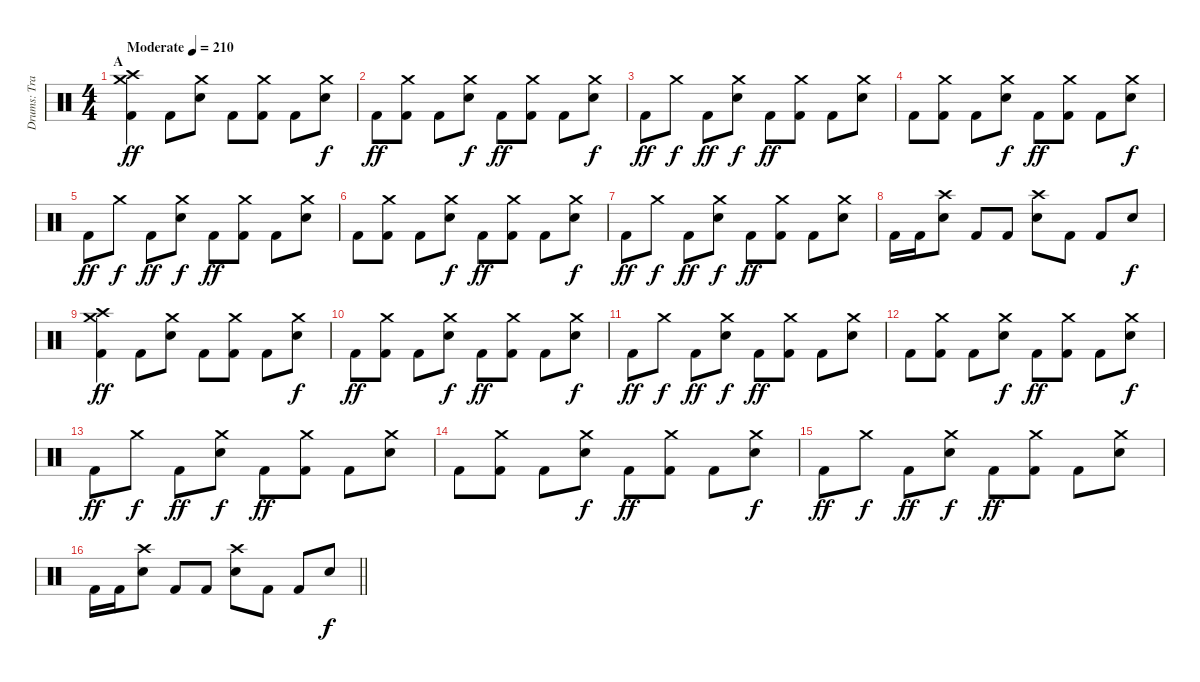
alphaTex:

\track ("Drums: Trav Clarke" "Drums: Tra") {instrument percussion}
\staff {score}
\articulation defaults
\ts (4 4)
\section ("" "A")
\tempo (210 "Moderate")
\clef neutral
\ks c
("Kick (hit) 2" "Crash high (hit)" "Crash medium (hit)").4{dy ff} "Kick (hit) 2".8 ("Snare (hit) 2" "Crash medium (hit)").8 "Kick (hit) 2".8 ("Kick (hit) 2" "Crash medium (hit)").8 "Kick (hit) 2".8 ("Snare (hit) 2" "Crash medium (hit)").8{dy f} |
"Kick (hit) 2".8{dy ff} ("Kick (hit) 2" "Crash medium (hit)").8 "Kick (hit) 2".8 ("Snare (hit) 2" "Crash medium (hit)").8{dy f} "Kick (hit) 2".8{dy ff} ("Kick (hit) 2" "Crash medium (hit)").8 "Kick (hit) 2".8 ("Snare (hit) 2" "Crash medium (hit)").8{dy f} |
"Kick (hit) 2".8{dy ff} "Crash medium (hit)".8{dy f} "Kick (hit) 2".8{dy ff} ("Snare (hit) 2" "Crash medium (hit)").8{dy f} "Kick (hit) 2".8{dy ff} ("Kick (hit) 2" "Crash medium (hit)").8 "Kick (hit) 2".8 ("Snare (hit) 2" "Crash medium (hit)").8 |
"Kick (hit) 2".8 ("Kick (hit) 2" "Crash medium (hit)").8 "Kick (hit) 2".8 ("Snare (hit) 2" "Crash medium (hit)").8{dy f} "Kick (hit) 2".8{dy ff} ("Kick (hit) 2" "Crash medium (hit)").8 "Kick (hit) 2".8 ("Snare (hit) 2" "Crash medium (hit)").8{dy f} |
"Kick (hit) 2".8{dy ff} "Crash medium (hit)".8{dy f} "Kick (hit) 2".8{dy ff} ("Snare (hit) 2" "Crash medium (hit)").8{dy f} "Kick (hit) 2".8{dy ff} ("Kick (hit) 2" "Crash medium (hit)").8 "Kick (hit) 2".8 ("Snare (hit) 2" "Crash medium (hit)").8 |
"Kick (hit) 2".8 ("Kick (hit) 2" "Crash medium (hit)").8 "Kick (hit) 2".8 ("Snare (hit) 2" "Crash medium (hit)").8{dy f} "Kick (hit) 2".8{dy ff} ("Kick (hit) 2" "Crash medium (hit)").8 "Kick (hit) 2".8 ("Snare (hit) 2" "Crash medium (hit)").8{dy f} |
"Kick (hit) 2".8{dy ff} "Crash medium (hit)".8{dy f} "Kick (hit) 2".8{dy ff} ("Snare (hit) 2" "Crash medium (hit)").8{dy f} "Kick (hit) 2".8{dy ff} ("Kick (hit) 2" "Crash medium (hit)").8 "Kick (hit) 2".8 ("Snare (hit) 2" "Crash medium (hit)").8 |
"Kick (hit) 2".16 "Kick (hit) 2".16 ("Snare (hit) 2" "Crash high (hit)").8 "Kick (hit) 2".8 "Kick (hit) 2".8 ("Snare (hit) 2" "Crash high (hit)").8 "Kick (hit) 2".8 "Kick (hit) 2".8 "Snare (hit) 2".8{dy f} |
("Kick (hit) 2" "Crash high (hit)" "Crash medium (hit)").4{dy ff} "Kick (hit) 2".8 ("Snare (hit) 2" "Crash medium (hit)").8 "Kick (hit) 2".8 ("Kick (hit) 2" "Crash medium (hit)").8 "Kick (hit) 2".8 ("Snare (hit) 2" "Crash medium (hit)").8{dy f} |
"Kick (hit) 2".8{dy ff} ("Kick (hit) 2" "Crash medium (hit)").8 "Kick (hit) 2".8 ("Snare (hit) 2" "Crash medium (hit)").8{dy f} "Kick (hit) 2".8{dy ff} ("Kick (hit) 2" "Crash medium (hit)").8 "Kick (hit) 2".8 ("Snare (hit) 2" "Crash medium (hit)").8{dy f} |
"Kick (hit) 2".8{dy ff} "Crash medium (hit)".8{dy f} "Kick (hit) 2".8{dy ff} ("Snare (hit) 2" "Crash medium (hit)").8{dy f} "Kick (hit) 2".8{dy ff} ("Kick (hit) 2" "Crash medium (hit)").8 "Kick (hit) 2".8 ("Snare (hit) 2" "Crash medium (hit)").8 |
"Kick (hit) 2".8 ("Kick (hit) 2" "Crash medium (hit)").8 "Kick (hit) 2".8 ("Snare (hit) 2" "Crash medium (hit)").8{dy f} "Kick (hit) 2".8{dy ff} ("Kick (hit) 2" "Crash medium (hit)").8 "Kick (hit) 2".8 ("Snare (hit) 2" "Crash medium (hit)").8{dy f} |
"Kick (hit) 2".8{dy ff} "Crash medium (hit)".8{dy f} "Kick (hit) 2".8{dy ff} ("Snare (hit) 2" "Crash medium (hit)").8{dy f} "Kick (hit) 2".8{dy ff} ("Kick (hit) 2" "Crash medium (hit)").8 "Kick (hit) 2".8 ("Snare (hit) 2" "Crash medium (hit)").8 |
"Kick (hit) 2".8 ("Kick (hit) 2" "Crash medium (hit)").8 "Kick (hit) 2".8 ("Snare (hit) 2" "Crash medium (hit)").8{dy f} "Kick (hit) 2".8{dy ff} ("Kick (hit) 2" "Crash medium (hit)").8 "Kick (hit) 2".8 ("Snare (hit) 2" "Crash medium (hit)").8{dy f} |
"Kick (hit) 2".8{dy ff} "Crash medium (hit)".8{dy f} "Kick (hit) 2".8{dy ff} ("Snare (hit) 2" "Crash medium (hit)").8{dy f} "Kick (hit) 2".8{dy ff} ("Kick (hit) 2" "Crash medium (hit)").8 "Kick (hit) 2".8 ("Snare (hit) 2" "Crash medium (hit)").8 |
\barLineRight lightlight "Kick (hit) 2".16 "Kick (hit) 2".16
("Snare (hit) 2" "Crash high (hit)").8 "Kick (hit) 2".8 "Kick (hit) 2".8 ("Snare (hit) 2" "Crash high (hit)").8 "Kick (hit) 2".8 "Kick (hit) 2".8 "Snare (hit) 2".8{dy f}
